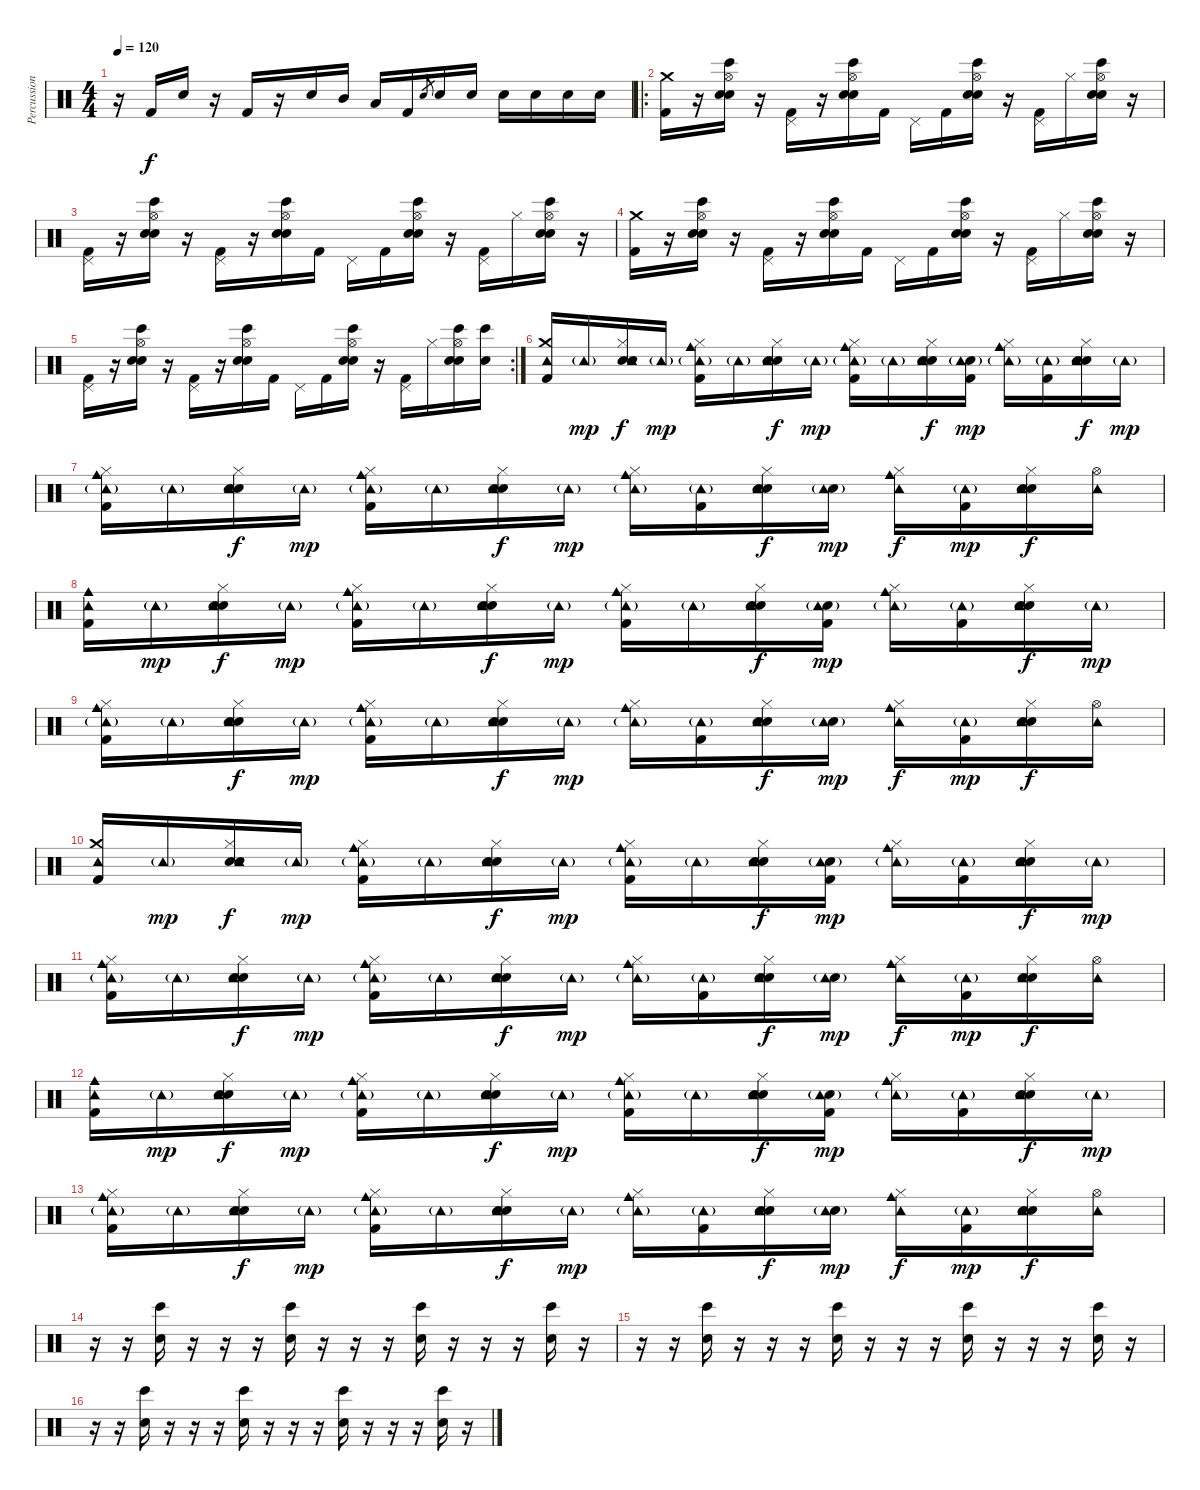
\track ("Percussion" "Percussion") {instrument percussion}
\staff {score}
\articulation defaults
\ts (4 4)
\tempo 120
\clef neutral
\ks c
r.16{dy f} "Kick (hit) 2".16 "Electric Snare (hit)".16 r.16 "Kick (hit) 2".16 r.16 "Electric Snare (hit)".16 "Mid Tom (hit)".16 "Low Tom (hit)".16 "Kick (hit) 2".16 "Electric Snare (hit)".8{gr} "Electric Snare (hit)".16 "Electric Snare (hit)".16 "Electric Snare (hit)".16 "Electric Snare (hit)".16 "Electric Snare (hit)".16 "Electric Snare (hit)".16 |
\ro
("Crash medium (hit)" "Kick (hit) 2").16 r.16 ("Hi-Hat (open)" "Electric Snare (hit)" "Snare (hit) 2" "Bongo High (hit)").16 r.16 ("Pedal Hi-Hat (hit)" "Kick (hit) 2").16 r.16 ("Hi-Hat (open)" "Electric Snare (hit)" "Snare (hit) 2" "Bongo High (hit)").16 "Kick (hit) 2".16 "Pedal Hi-Hat (hit)".16 "Kick (hit) 2".16 ("Hi-Hat (open)" "Electric Snare (hit)" "Snare (hit) 2" "Bongo High (hit)").16 r.16 ("Pedal Hi-Hat (hit)" "Kick (hit) 2").16 "Hi-Hat (closed)".16 ("Hi-Hat (open)" "Electric Snare (hit)" "Snare (hit) 2" "Bongo High (hit)").16 r.16 |
("Pedal Hi-Hat (hit)" "Kick (hit) 2").16 r.16 ("Hi-Hat (open)" "Electric Snare (hit)" "Snare (hit) 2" "Bongo High (hit)").16 r.16 ("Pedal Hi-Hat (hit)" "Kick (hit) 2").16 r.16 ("Hi-Hat (open)" "Electric Snare (hit)" "Snare (hit) 2" "Bongo High (hit)").16 "Kick (hit) 2".16 "Pedal Hi-Hat (hit)".16 "Kick (hit) 2".16 ("Hi-Hat (open)" "Electric Snare (hit)" "Snare (hit) 2" "Bongo High (hit)").16 r.16 ("Pedal Hi-Hat (hit)" "Kick (hit) 2").16 "Hi-Hat (closed)".16 ("Hi-Hat (open)" "Electric Snare (hit)" "Snare (hit) 2" "Bongo High (hit)").16 r.16 |
("Crash medium (hit)" "Kick (hit) 2").16 r.16 ("Hi-Hat (open)" "Electric Snare (hit)" "Snare (hit) 2" "Bongo High (hit)").16 r.16 ("Pedal Hi-Hat (hit)" "Kick (hit) 2").16 r.16 ("Hi-Hat (open)" "Electric Snare (hit)" "Snare (hit) 2" "Bongo High (hit)").16 "Kick (hit) 2".16 "Pedal Hi-Hat (hit)".16 "Kick (hit) 2".16 ("Hi-Hat (open)" "Electric Snare (hit)" "Snare (hit) 2" "Bongo High (hit)").16 r.16 ("Pedal Hi-Hat (hit)" "Kick (hit) 2").16 "Hi-Hat (closed)".16 ("Hi-Hat (open)" "Electric Snare (hit)" "Snare (hit) 2" "Bongo High (hit)").16 r.16 |
\rc 2
("Pedal Hi-Hat (hit)" "Kick (hit) 2").16 r.16 ("Hi-Hat (open)" "Electric Snare (hit)" "Snare (hit) 2" "Bongo High (hit)").16 r.16 ("Pedal Hi-Hat (hit)" "Kick (hit) 2").16 r.16 ("Hi-Hat (open)" "Electric Snare (hit)" "Snare (hit) 2" "Bongo High (hit)").16 "Kick (hit) 2".16 "Pedal Hi-Hat (hit)".16 "Kick (hit) 2".16 ("Hi-Hat (open)" "Electric Snare (hit)" "Snare (hit) 2" "Bongo High (hit)").16 r.16 ("Pedal Hi-Hat (hit)" "Kick (hit) 2").16 "Hi-Hat (closed)".16 ("Hi-Hat (open)" "Electric Snare (hit)" "Snare (hit) 2" "Bongo High (hit)").16 ("Electric Snare (hit)" "Bongo High (hit)").16 |
("Crash medium (hit)" "Kick (hit) 2" "Tambourine (hit)").16 "Tambourine (hit)"{g}.16{dy mp} ("Hi-Hat (closed)" "Electric Snare (hit)" "Hand Clap (hit)" "Tambourine (hit)").16{dy f} "Tambourine (hit)"{g}.16{dy mp} ("Cowbell medium (hit)" "Hi-Hat (closed)" "Kick (hit) 2" "Tambourine (hit)"{g}).16 "Tambourine (hit)"{g}.16 ("Hi-Hat (closed)" "Electric Snare (hit)" "Hand Clap (hit)" "Tambourine (hit)").16{dy f} "Tambourine (hit)"{g}.16{dy mp} ("Cowbell medium (hit)" "Hi-Hat (closed)" "Kick (hit) 2" "Tambourine (hit)"{g}).16 "Tambourine (hit)"{g}.16 ("Hi-Hat (closed)" "Electric Snare (hit)" "Hand Clap (hit)" "Tambourine (hit)").16{dy f} ("Kick (hit) 2" "Hand Clap (hit)" "Tambourine (hit)"{g}).16{dy mp} ("Cowbell medium (hit)" "Hi-Hat (closed)" "Tambourine (hit)"{g}).16 ("Kick (hit) 2" "Tambourine (hit)"{g}).16 ("Hi-Hat (closed)" "Electric Snare (hit)" "Hand Clap (hit)" "Tambourine (hit)").16{dy f} "Tambourine (hit)"{g}.16{dy mp} |
("Cowbell medium (hit)" "Hi-Hat (closed)" "Kick (hit) 2" "Tambourine (hit)"{g}).16 "Tambourine (hit)"{g}.16 ("Hi-Hat (closed)" "Electric Snare (hit)" "Hand Clap (hit)" "Tambourine (hit)").16{dy f} "Tambourine (hit)"{g}.16{dy mp} ("Cowbell medium (hit)" "Hi-Hat (closed)" "Kick (hit) 2" "Tambourine (hit)"{g}).16 "Tambourine (hit)"{g}.16 ("Hi-Hat (closed)" "Electric Snare (hit)" "Hand Clap (hit)" "Tambourine (hit)").16{dy f} "Tambourine (hit)"{g}.16{dy mp} ("Cowbell medium (hit)" "Hi-Hat (closed)" "Tambourine (hit)"{g}).16 ("Kick (hit) 2" "Tambourine (hit)"{g}).16 ("Hi-Hat (closed)" "Electric Snare (hit)" "Hand Clap (hit)" "Tambourine (hit)").16{dy f} ("Hand Clap (hit)" "Tambourine (hit)"{g}).16{dy mp} ("Cowbell medium (hit)" "Hi-Hat (closed)" "Tambourine (hit)").16{dy f} ("Kick (hit) 2" "Tambourine (hit)"{g}).16{dy mp} ("Hi-Hat (closed)" "Electric Snare (hit)" "Hand Clap (hit)" "Tambourine (hit)").16{dy f} ("Hi-Hat (open)" "Tambourine (hit)").16 |
("Cowbell medium (hit)" "Kick (hit) 2" "Tambourine (hit)").16 "Tambourine (hit)"{g}.16{dy mp} ("Hi-Hat (closed)" "Electric Snare (hit)" "Hand Clap (hit)" "Tambourine (hit)").16{dy f} "Tambourine (hit)"{g}.16{dy mp} ("Cowbell medium (hit)" "Hi-Hat (closed)" "Kick (hit) 2" "Tambourine (hit)"{g}).16 "Tambourine (hit)"{g}.16 ("Hi-Hat (closed)" "Electric Snare (hit)" "Hand Clap (hit)" "Tambourine (hit)").16{dy f} "Tambourine (hit)"{g}.16{dy mp} ("Cowbell medium (hit)" "Hi-Hat (closed)" "Kick (hit) 2" "Tambourine (hit)"{g}).16 "Tambourine (hit)"{g}.16 ("Hi-Hat (closed)" "Electric Snare (hit)" "Hand Clap (hit)" "Tambourine (hit)").16{dy f} ("Kick (hit) 2" "Hand Clap (hit)" "Tambourine (hit)"{g}).16{dy mp} ("Cowbell medium (hit)" "Hi-Hat (closed)" "Tambourine (hit)"{g}).16 ("Kick (hit) 2" "Tambourine (hit)"{g}).16 ("Hi-Hat (closed)" "Electric Snare (hit)" "Hand Clap (hit)" "Tambourine (hit)").16{dy f} "Tambourine (hit)"{g}.16{dy mp} |
("Cowbell medium (hit)" "Hi-Hat (closed)" "Kick (hit) 2" "Tambourine (hit)"{g}).16 "Tambourine (hit)"{g}.16 ("Hi-Hat (closed)" "Electric Snare (hit)" "Hand Clap (hit)" "Tambourine (hit)").16{dy f} "Tambourine (hit)"{g}.16{dy mp} ("Cowbell medium (hit)" "Hi-Hat (closed)" "Kick (hit) 2" "Tambourine (hit)"{g}).16 "Tambourine (hit)"{g}.16 ("Hi-Hat (closed)" "Electric Snare (hit)" "Hand Clap (hit)" "Tambourine (hit)").16{dy f} "Tambourine (hit)"{g}.16{dy mp} ("Cowbell medium (hit)" "Hi-Hat (closed)" "Tambourine (hit)"{g}).16 ("Kick (hit) 2" "Tambourine (hit)"{g}).16 ("Hi-Hat (closed)" "Electric Snare (hit)" "Hand Clap (hit)" "Tambourine (hit)").16{dy f} ("Hand Clap (hit)" "Tambourine (hit)"{g}).16{dy mp} ("Cowbell medium (hit)" "Hi-Hat (closed)" "Tambourine (hit)").16{dy f} ("Kick (hit) 2" "Tambourine (hit)"{g}).16{dy mp} ("Hi-Hat (closed)" "Electric Snare (hit)" "Hand Clap (hit)" "Tambourine (hit)").16{dy f} ("Hi-Hat (open)" "Tambourine (hit)").16 |
("Crash medium (hit)" "Kick (hit) 2" "Tambourine (hit)").16 "Tambourine (hit)"{g}.16{dy mp} ("Hi-Hat (closed)" "Electric Snare (hit)" "Hand Clap (hit)" "Tambourine (hit)").16{dy f} "Tambourine (hit)"{g}.16{dy mp} ("Cowbell medium (hit)" "Hi-Hat (closed)" "Kick (hit) 2" "Tambourine (hit)"{g}).16 "Tambourine (hit)"{g}.16 ("Hi-Hat (closed)" "Electric Snare (hit)" "Hand Clap (hit)" "Tambourine (hit)").16{dy f} "Tambourine (hit)"{g}.16{dy mp} ("Cowbell medium (hit)" "Hi-Hat (closed)" "Kick (hit) 2" "Tambourine (hit)"{g}).16 "Tambourine (hit)"{g}.16 ("Hi-Hat (closed)" "Electric Snare (hit)" "Hand Clap (hit)" "Tambourine (hit)").16{dy f} ("Kick (hit) 2" "Hand Clap (hit)" "Tambourine (hit)"{g}).16{dy mp} ("Cowbell medium (hit)" "Hi-Hat (closed)" "Tambourine (hit)"{g}).16 ("Kick (hit) 2" "Tambourine (hit)"{g}).16 ("Hi-Hat (closed)" "Electric Snare (hit)" "Hand Clap (hit)" "Tambourine (hit)").16{dy f} "Tambourine (hit)"{g}.16{dy mp} |
("Cowbell medium (hit)" "Hi-Hat (closed)" "Kick (hit) 2" "Tambourine (hit)"{g}).16 "Tambourine (hit)"{g}.16 ("Hi-Hat (closed)" "Electric Snare (hit)" "Hand Clap (hit)" "Tambourine (hit)").16{dy f} "Tambourine (hit)"{g}.16{dy mp} ("Cowbell medium (hit)" "Hi-Hat (closed)" "Kick (hit) 2" "Tambourine (hit)"{g}).16 "Tambourine (hit)"{g}.16 ("Hi-Hat (closed)" "Electric Snare (hit)" "Hand Clap (hit)" "Tambourine (hit)").16{dy f} "Tambourine (hit)"{g}.16{dy mp} ("Cowbell medium (hit)" "Hi-Hat (closed)" "Tambourine (hit)"{g}).16 ("Kick (hit) 2" "Tambourine (hit)"{g}).16 ("Hi-Hat (closed)" "Electric Snare (hit)" "Hand Clap (hit)" "Tambourine (hit)").16{dy f} ("Hand Clap (hit)" "Tambourine (hit)"{g}).16{dy mp} ("Cowbell medium (hit)" "Hi-Hat (closed)" "Tambourine (hit)").16{dy f} ("Kick (hit) 2" "Tambourine (hit)"{g}).16{dy mp} ("Hi-Hat (closed)" "Electric Snare (hit)" "Hand Clap (hit)" "Tambourine (hit)").16{dy f} ("Hi-Hat (open)" "Tambourine (hit)").16 |
("Cowbell medium (hit)" "Kick (hit) 2" "Tambourine (hit)").16 "Tambourine (hit)"{g}.16{dy mp} ("Hi-Hat (closed)" "Electric Snare (hit)" "Hand Clap (hit)" "Tambourine (hit)").16{dy f} "Tambourine (hit)"{g}.16{dy mp} ("Cowbell medium (hit)" "Hi-Hat (closed)" "Kick (hit) 2" "Tambourine (hit)"{g}).16 "Tambourine (hit)"{g}.16 ("Hi-Hat (closed)" "Electric Snare (hit)" "Hand Clap (hit)" "Tambourine (hit)").16{dy f} "Tambourine (hit)"{g}.16{dy mp} ("Cowbell medium (hit)" "Hi-Hat (closed)" "Kick (hit) 2" "Tambourine (hit)"{g}).16 "Tambourine (hit)"{g}.16 ("Hi-Hat (closed)" "Electric Snare (hit)" "Hand Clap (hit)" "Tambourine (hit)").16{dy f} ("Kick (hit) 2" "Hand Clap (hit)" "Tambourine (hit)"{g}).16{dy mp} ("Cowbell medium (hit)" "Hi-Hat (closed)" "Tambourine (hit)"{g}).16 ("Kick (hit) 2" "Tambourine (hit)"{g}).16 ("Hi-Hat (closed)" "Electric Snare (hit)" "Hand Clap (hit)" "Tambourine (hit)").16{dy f} "Tambourine (hit)"{g}.16{dy mp} |
("Cowbell medium (hit)" "Hi-Hat (closed)" "Kick (hit) 2" "Tambourine (hit)"{g}).16 "Tambourine (hit)"{g}.16 ("Hi-Hat (closed)" "Electric Snare (hit)" "Hand Clap (hit)" "Tambourine (hit)").16{dy f} "Tambourine (hit)"{g}.16{dy mp} ("Cowbell medium (hit)" "Hi-Hat (closed)" "Kick (hit) 2" "Tambourine (hit)"{g}).16 "Tambourine (hit)"{g}.16 ("Hi-Hat (closed)" "Electric Snare (hit)" "Hand Clap (hit)" "Tambourine (hit)").16{dy f} "Tambourine (hit)"{g}.16{dy mp} ("Cowbell medium (hit)" "Hi-Hat (closed)" "Tambourine (hit)"{g}).16 ("Kick (hit) 2" "Tambourine (hit)"{g}).16 ("Hi-Hat (closed)" "Electric Snare (hit)" "Hand Clap (hit)" "Tambourine (hit)").16{dy f} ("Hand Clap (hit)" "Tambourine (hit)"{g}).16{dy mp} ("Cowbell medium (hit)" "Hi-Hat (closed)" "Tambourine (hit)").16{dy f} ("Kick (hit) 2" "Tambourine (hit)"{g}).16{dy mp} ("Hi-Hat (closed)" "Electric Snare (hit)" "Hand Clap (hit)" "Tambourine (hit)").16{dy f} ("Hi-Hat (open)" "Tambourine (hit)").16 |
r.16 r.16 ("Electric Snare (hit)" "Bongo High (hit)").16 r.16 r.16 r.16 ("Electric Snare (hit)" "Bongo High (hit)").16 r.16 r.16 r.16 ("Electric Snare (hit)" "Bongo High (hit)").16 r.16 r.16 r.16 ("Electric Snare (hit)" "Bongo High (hit)").16 r.16 |
r.16 r.16 ("Electric Snare (hit)" "Bongo High (hit)").16 r.16 r.16 r.16 ("Electric Snare (hit)" "Bongo High (hit)").16 r.16 r.16 r.16 ("Electric Snare (hit)" "Bongo High (hit)").16 r.16 r.16 r.16 ("Electric Snare (hit)" "Bongo High (hit)").16 r.16 |
r.16 r.16 ("Electric Snare (hit)" "Bongo High (hit)").16 r.16 r.16 r.16 ("Electric Snare (hit)" "Bongo High (hit)").16 r.16 r.16 r.16 ("Electric Snare (hit)" "Bongo High (hit)").16 r.16 r.16 r.16 ("Electric Snare (hit)" "Bongo High (hit)").16 r.16
